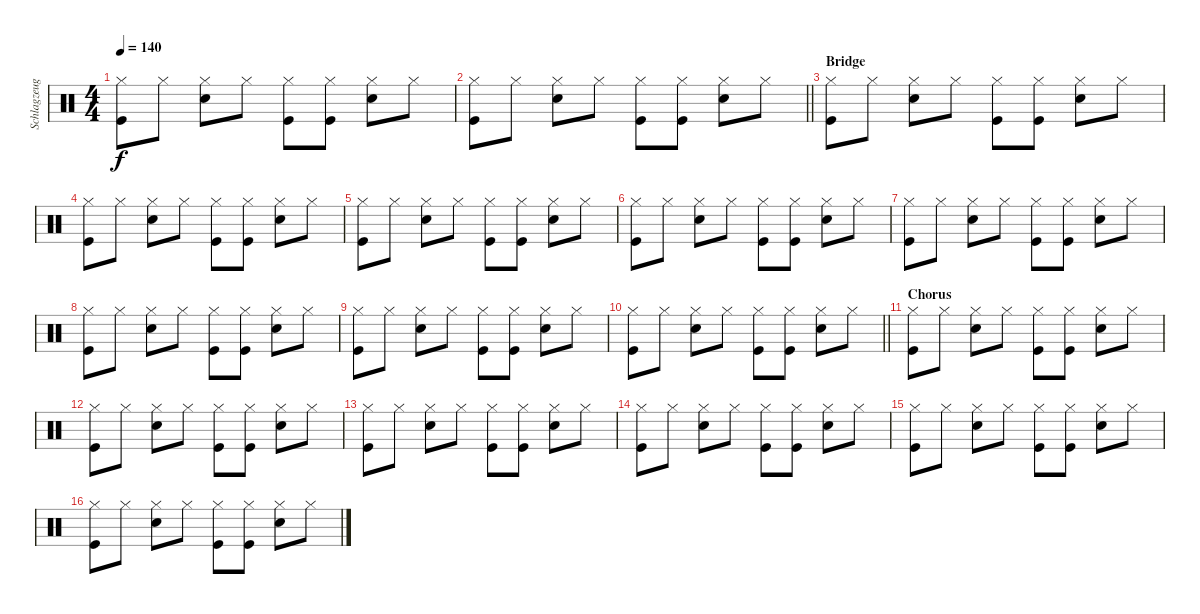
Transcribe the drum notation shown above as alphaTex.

\track ("Schlagzeug 1st" "Schlagzeug") {instrument percussion}
\staff {score}
\articulation defaults
\ts (4 4)
\tempo 140
\clef neutral
\ks c
("Hi-Hat (closed)" "Kick (hit)").8{dy f} "Hi-Hat (closed)".8 ("Hi-Hat (closed)" "Snare (hit) 2").8 "Hi-Hat (closed)".8 ("Hi-Hat (closed)" "Kick (hit)").8 ("Hi-Hat (closed)" "Kick (hit)").8 ("Hi-Hat (closed)" "Snare (hit) 2").8 "Hi-Hat (closed)".8 |
\barLineRight lightlight
("Hi-Hat (closed)" "Kick (hit)").8 "Hi-Hat (closed)".8 ("Hi-Hat (closed)" "Snare (hit) 2").8 "Hi-Hat (closed)".8 ("Hi-Hat (closed)" "Kick (hit)").8 ("Hi-Hat (closed)" "Kick (hit)").8 ("Hi-Hat (closed)" "Snare (hit) 2").8 "Hi-Hat (closed)".8 |
\section ("" "Bridge")
("Hi-Hat (closed)" "Kick (hit)").8 "Hi-Hat (closed)".8 ("Hi-Hat (closed)" "Snare (hit) 2").8 "Hi-Hat (closed)".8 ("Hi-Hat (closed)" "Kick (hit)").8 ("Hi-Hat (closed)" "Kick (hit)").8 ("Hi-Hat (closed)" "Snare (hit) 2").8 "Hi-Hat (closed)".8 |
("Hi-Hat (closed)" "Kick (hit)").8 "Hi-Hat (closed)".8 ("Hi-Hat (closed)" "Snare (hit) 2").8 "Hi-Hat (closed)".8 ("Hi-Hat (closed)" "Kick (hit)").8 ("Hi-Hat (closed)" "Kick (hit)").8 ("Hi-Hat (closed)" "Snare (hit) 2").8 "Hi-Hat (closed)".8 |
("Hi-Hat (closed)" "Kick (hit)").8 "Hi-Hat (closed)".8 ("Hi-Hat (closed)" "Snare (hit) 2").8 "Hi-Hat (closed)".8 ("Hi-Hat (closed)" "Kick (hit)").8 ("Hi-Hat (closed)" "Kick (hit)").8 ("Hi-Hat (closed)" "Snare (hit) 2").8 "Hi-Hat (closed)".8 |
("Hi-Hat (closed)" "Kick (hit)").8 "Hi-Hat (closed)".8 ("Hi-Hat (closed)" "Snare (hit) 2").8 "Hi-Hat (closed)".8 ("Hi-Hat (closed)" "Kick (hit)").8 ("Hi-Hat (closed)" "Kick (hit)").8 ("Hi-Hat (closed)" "Snare (hit) 2").8 "Hi-Hat (closed)".8 |
("Hi-Hat (closed)" "Kick (hit)").8 "Hi-Hat (closed)".8 ("Hi-Hat (closed)" "Snare (hit) 2").8 "Hi-Hat (closed)".8 ("Hi-Hat (closed)" "Kick (hit)").8 ("Hi-Hat (closed)" "Kick (hit)").8 ("Hi-Hat (closed)" "Snare (hit) 2").8 "Hi-Hat (closed)".8 |
("Hi-Hat (closed)" "Kick (hit)").8 "Hi-Hat (closed)".8 ("Hi-Hat (closed)" "Snare (hit) 2").8 "Hi-Hat (closed)".8 ("Hi-Hat (closed)" "Kick (hit)").8 ("Hi-Hat (closed)" "Kick (hit)").8 ("Hi-Hat (closed)" "Snare (hit) 2").8 "Hi-Hat (closed)".8 |
("Hi-Hat (closed)" "Kick (hit)").8 "Hi-Hat (closed)".8 ("Hi-Hat (closed)" "Snare (hit) 2").8 "Hi-Hat (closed)".8 ("Hi-Hat (closed)" "Kick (hit)").8 ("Hi-Hat (closed)" "Kick (hit)").8 ("Hi-Hat (closed)" "Snare (hit) 2").8 "Hi-Hat (closed)".8 |
\barLineRight lightlight
("Hi-Hat (closed)" "Kick (hit)").8 "Hi-Hat (closed)".8 ("Hi-Hat (closed)" "Snare (hit) 2").8 "Hi-Hat (closed)".8 ("Hi-Hat (closed)" "Kick (hit)").8 ("Hi-Hat (closed)" "Kick (hit)").8 ("Hi-Hat (closed)" "Snare (hit) 2").8 "Hi-Hat (closed)".8 |
\section ("" "Chorus")
("Hi-Hat (closed)" "Kick (hit)").8 "Hi-Hat (closed)".8 ("Hi-Hat (closed)" "Snare (hit) 2").8 "Hi-Hat (closed)".8 ("Hi-Hat (closed)" "Kick (hit)").8 ("Hi-Hat (closed)" "Kick (hit)").8 ("Hi-Hat (closed)" "Snare (hit) 2").8 "Hi-Hat (closed)".8 |
("Hi-Hat (closed)" "Kick (hit)").8 "Hi-Hat (closed)".8 ("Hi-Hat (closed)" "Snare (hit) 2").8 "Hi-Hat (closed)".8 ("Hi-Hat (closed)" "Kick (hit)").8 ("Hi-Hat (closed)" "Kick (hit)").8 ("Hi-Hat (closed)" "Snare (hit) 2").8 "Hi-Hat (closed)".8 |
("Hi-Hat (closed)" "Kick (hit)").8 "Hi-Hat (closed)".8 ("Hi-Hat (closed)" "Snare (hit) 2").8 "Hi-Hat (closed)".8 ("Hi-Hat (closed)" "Kick (hit)").8 ("Hi-Hat (closed)" "Kick (hit)").8 ("Hi-Hat (closed)" "Snare (hit) 2").8 "Hi-Hat (closed)".8 |
("Hi-Hat (closed)" "Kick (hit)").8 "Hi-Hat (closed)".8 ("Hi-Hat (closed)" "Snare (hit) 2").8 "Hi-Hat (closed)".8 ("Hi-Hat (closed)" "Kick (hit)").8 ("Hi-Hat (closed)" "Kick (hit)").8 ("Hi-Hat (closed)" "Snare (hit) 2").8 "Hi-Hat (closed)".8 |
("Hi-Hat (closed)" "Kick (hit)").8 "Hi-Hat (closed)".8 ("Hi-Hat (closed)" "Snare (hit) 2").8 "Hi-Hat (closed)".8 ("Hi-Hat (closed)" "Kick (hit)").8 ("Hi-Hat (closed)" "Kick (hit)").8 ("Hi-Hat (closed)" "Snare (hit) 2").8 "Hi-Hat (closed)".8 |
("Hi-Hat (closed)" "Kick (hit)").8 "Hi-Hat (closed)".8 ("Hi-Hat (closed)" "Snare (hit) 2").8 "Hi-Hat (closed)".8 ("Hi-Hat (closed)" "Kick (hit)").8 ("Hi-Hat (closed)" "Kick (hit)").8 ("Hi-Hat (closed)" "Snare (hit) 2").8 "Hi-Hat (closed)".8
